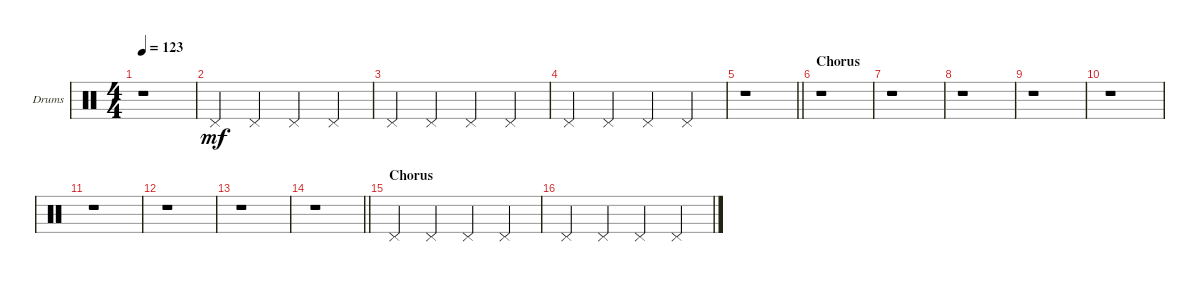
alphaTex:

\defaultSystemsLayout 4
\bracketExtendMode groupsimilarinstruments
\firstSystemTrackNameOrientation horizontal
\otherSystemsTrackNameOrientation horizontal
\track ("Pedal Hithat" "Drums") {instrument percussion}
\staff {score}
\articulation defaults
\ts (4 4)
\tempo 123
\clef neutral
\scale
0.333333
\ks c
r.1{dy mf} |
\scale
0.333333 "Pedal Hi-Hat (hit)".4 "Pedal Hi-Hat (hit)".4 "Pedal Hi-Hat (hit)".4 "Pedal Hi-Hat (hit)".4 |
\scale
0.333333 "Pedal Hi-Hat (hit)".4 "Pedal Hi-Hat (hit)".4 "Pedal Hi-Hat (hit)".4 "Pedal Hi-Hat (hit)".4 |
\scale
0.333333 "Pedal Hi-Hat (hit)".4 "Pedal Hi-Hat (hit)".4 "Pedal Hi-Hat (hit)".4 "Pedal Hi-Hat (hit)".4 |
\scale
0.333333
\barLineRight lightlight
r.1 |
\section ("" "Chorus")
\scale
0.333333 r.1 |
\scale
0.333333 r.1 |
\scale
0.333333 r.1 |
\scale
0.333333 r.1 |
\scale
0.333333 r.1 |
\scale
0.333333 r.1 |
\scale
0.333333 r.1 |
\scale
0.333333 r.1 |
\scale
0.333333
\barLineRight lightlight
r.1 |
\section ("" "Chorus")
\scale
0.333333 "Pedal Hi-Hat (hit)".4 "Pedal Hi-Hat (hit)".4 "Pedal Hi-Hat (hit)".4 "Pedal Hi-Hat (hit)".4 |
\scale
0.333333 "Pedal Hi-Hat (hit)".4 "Pedal Hi-Hat (hit)".4 "Pedal Hi-Hat (hit)".4 "Pedal Hi-Hat (hit)".4
